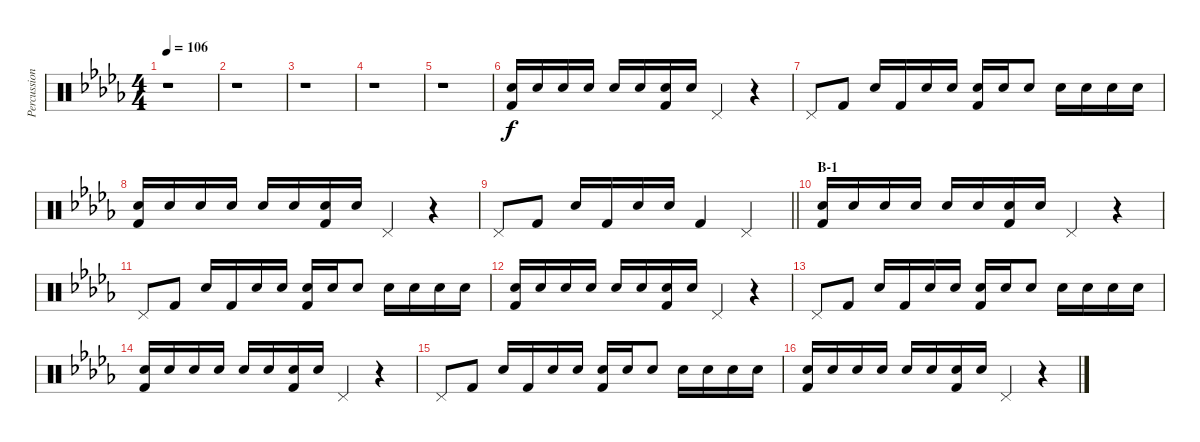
\track ("Percussion" "Percussion") {instrument percussion}
\staff {score}
\articulation defaults
\ts (4 4)
\tempo 106
\clef neutral
\ks db
r.1{dy f} |
r.1 |
r.1 |
r.1 |
r.1 |
("Electric Snare (hit)" "Kick (hit) 2").16 "Electric Snare (hit)".16 "Electric Snare (hit)".16 "Electric Snare (hit)".16 "Electric Snare (hit)".16 "Electric Snare (hit)".16 ("Electric Snare (hit)" "Kick (hit) 2").16 "Electric Snare (hit)".16 "Pedal Hi-Hat (hit)".4 r.4 |
"Pedal Hi-Hat (hit)".8 "Kick (hit) 2".8 "Electric Snare (hit)".16 "Kick (hit) 2".16 "Electric Snare (hit)".16 "Electric Snare (hit)".16 ("Electric Snare (hit)" "Kick (hit) 2").16 "Electric Snare (hit)".16 "Electric Snare (hit)".8 "Electric Snare (hit)".16 "Electric Snare (hit)".16 "Electric Snare (hit)".16 "Electric Snare (hit)".16 |
("Electric Snare (hit)" "Kick (hit) 2").16 "Electric Snare (hit)".16 "Electric Snare (hit)".16 "Electric Snare (hit)".16 "Electric Snare (hit)".16 "Electric Snare (hit)".16 ("Electric Snare (hit)" "Kick (hit) 2").16 "Electric Snare (hit)".16 "Pedal Hi-Hat (hit)".4 r.4 |
\barLineRight lightlight "Pedal Hi-Hat (hit)".8 "Kick (hit) 2".8 "Electric Snare (hit)".16 "Kick (hit) 2".16 "Electric Snare (hit)".16 "Electric Snare (hit)".16 "Kick (hit) 2".4 "Pedal Hi-Hat (hit)".4
|
\section ("" "B-1")
("Electric Snare (hit)" "Kick (hit) 2").16 "Electric Snare (hit)".16 "Electric Snare (hit)".16 "Electric Snare (hit)".16 "Electric Snare (hit)".16 "Electric Snare (hit)".16 ("Electric Snare (hit)" "Kick (hit) 2").16 "Electric Snare (hit)".16 "Pedal Hi-Hat (hit)".4 r.4 |
"Pedal Hi-Hat (hit)".8 "Kick (hit) 2".8 "Electric Snare (hit)".16 "Kick (hit) 2".16 "Electric Snare (hit)".16 "Electric Snare (hit)".16 ("Electric Snare (hit)" "Kick (hit) 2").16 "Electric Snare (hit)".16 "Electric Snare (hit)".8 "Electric Snare (hit)".16 "Electric Snare (hit)".16 "Electric Snare (hit)".16 "Electric Snare (hit)".16 |
("Electric Snare (hit)" "Kick (hit) 2").16 "Electric Snare (hit)".16 "Electric Snare (hit)".16 "Electric Snare (hit)".16 "Electric Snare (hit)".16 "Electric Snare (hit)".16 ("Electric Snare (hit)" "Kick (hit) 2").16 "Electric Snare (hit)".16 "Pedal Hi-Hat (hit)".4 r.4 |
"Pedal Hi-Hat (hit)".8 "Kick (hit) 2".8 "Electric Snare (hit)".16 "Kick (hit) 2".16 "Electric Snare (hit)".16 "Electric Snare (hit)".16 ("Electric Snare (hit)" "Kick (hit) 2").16 "Electric Snare (hit)".16 "Electric Snare (hit)".8 "Electric Snare (hit)".16 "Electric Snare (hit)".16 "Electric Snare (hit)".16 "Electric Snare (hit)".16 |
("Electric Snare (hit)" "Kick (hit) 2").16 "Electric Snare (hit)".16 "Electric Snare (hit)".16 "Electric Snare (hit)".16 "Electric Snare (hit)".16 "Electric Snare (hit)".16 ("Electric Snare (hit)" "Kick (hit) 2").16 "Electric Snare (hit)".16 "Pedal Hi-Hat (hit)".4 r.4 |
"Pedal Hi-Hat (hit)".8 "Kick (hit) 2".8 "Electric Snare (hit)".16 "Kick (hit) 2".16 "Electric Snare (hit)".16 "Electric Snare (hit)".16 ("Electric Snare (hit)" "Kick (hit) 2").16 "Electric Snare (hit)".16 "Electric Snare (hit)".8 "Electric Snare (hit)".16 "Electric Snare (hit)".16 "Electric Snare (hit)".16 "Electric Snare (hit)".16 |
("Electric Snare (hit)" "Kick (hit) 2").16 "Electric Snare (hit)".16 "Electric Snare (hit)".16 "Electric Snare (hit)".16 "Electric Snare (hit)".16 "Electric Snare (hit)".16 ("Electric Snare (hit)" "Kick (hit) 2").16 "Electric Snare (hit)".16 "Pedal Hi-Hat (hit)".4 r.4
